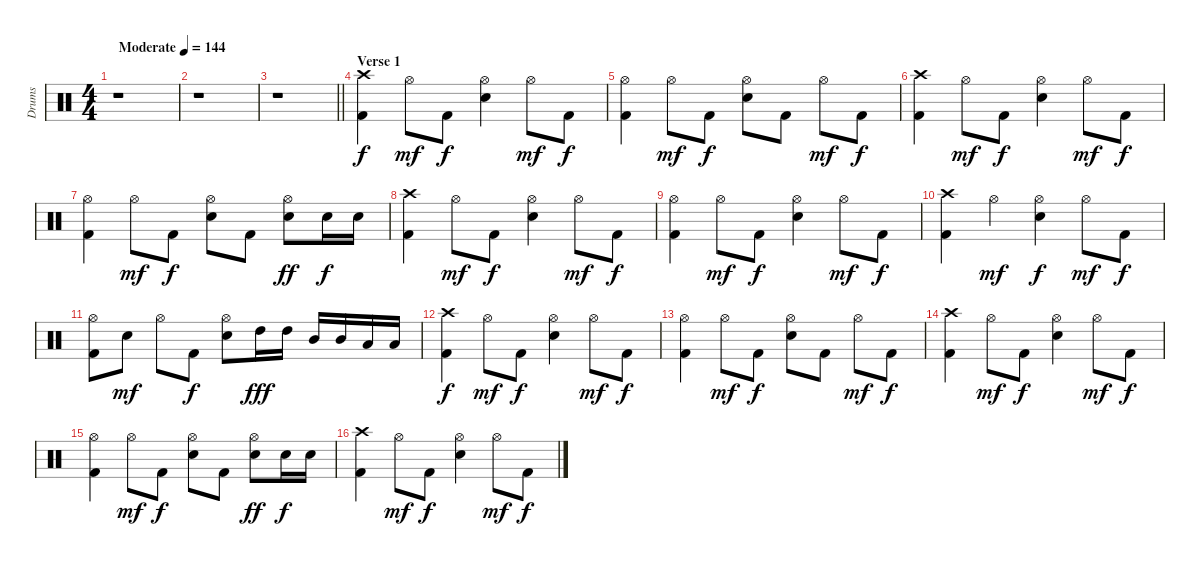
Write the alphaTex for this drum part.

\track ("Drums" "Drums") {instrument percussion}
\staff {score}
\articulation defaults
\ts (4 4)
\tempo (144 "Moderate")
\clef neutral
\ks c
r.1{dy f} |
r.1 |
\barLineRight lightlight
r.1 |
\section ("" "Verse 1")
("Crash high (hit)" "Kick (hit) 2").4 "Hi-Hat (open)".8{dy mf} "Kick (hit) 2".8{dy f} ("Hi-Hat (open)" "Electric Snare (hit)").4 "Hi-Hat (open)".8{dy mf} "Kick (hit) 2".8{dy f} |
("Hi-Hat (open)" "Kick (hit) 2").4 "Hi-Hat (open)".8{dy mf} "Kick (hit) 2".8{dy f} ("Hi-Hat (open)" "Electric Snare (hit)").8 "Kick (hit) 2".8 "Hi-Hat (open)".8{dy mf} "Kick (hit) 2".8{dy f} |
("Crash high (hit)" "Kick (hit) 2").4 "Hi-Hat (open)".8{dy mf} "Kick (hit) 2".8{dy f} ("Hi-Hat (open)" "Electric Snare (hit)").4 "Hi-Hat (open)".8{dy mf} "Kick (hit) 2".8{dy f} |
("Hi-Hat (open)" "Kick (hit) 2").4 "Hi-Hat (open)".8{dy mf} "Kick (hit) 2".8{dy f} ("Hi-Hat (open)" "Electric Snare (hit)").8 "Kick (hit) 2".8 ("Hi-Hat (open)" "Electric Snare (hit)").8{dy ff} "Electric Snare (hit)".16{dy f} "Electric Snare (hit)".16 |
("Crash high (hit)" "Kick (hit) 2").4 "Hi-Hat (open)".8{dy mf} "Kick (hit) 2".8{dy f} ("Hi-Hat (open)" "Electric Snare (hit)").4 "Hi-Hat (open)".8{dy mf} "Kick (hit) 2".8{dy f} |
("Hi-Hat (open)" "Kick (hit) 2").4 "Hi-Hat (open)".8{dy mf} "Kick (hit) 2".8{dy f} ("Hi-Hat (open)" "Electric Snare (hit)").4 "Hi-Hat (open)".8{dy mf} "Kick (hit) 2".8{dy f} |
("Crash high (hit)" "Kick (hit) 2").4 "Hi-Hat (open)".4{dy mf} ("Hi-Hat (open)" "Electric Snare (hit)").4{dy f} "Hi-Hat (open)".8{dy mf} "Kick (hit) 2".8{dy f} |
("Hi-Hat (open)" "Kick (hit) 2").8 "Electric Snare (hit)".8{dy mf} "Hi-Hat (open)".8 "Kick (hit) 2".8{dy f} ("Hi-Hat (open)" "Electric Snare (hit)").8 "High Tom (hit)".16{dy fff} "High Tom (hit)".16 "Mid Tom (hit)".16 "Mid Tom (hit)".16 "Low Tom (hit)".16 "Low Tom (hit)".16 |
("Crash high (hit)" "Kick (hit) 2").4{dy f} "Hi-Hat (open)".8{dy mf} "Kick (hit) 2".8{dy f} ("Hi-Hat (open)" "Electric Snare (hit)").4 "Hi-Hat (open)".8{dy mf} "Kick (hit) 2".8{dy f} |
("Hi-Hat (open)" "Kick (hit) 2").4 "Hi-Hat (open)".8{dy mf} "Kick (hit) 2".8{dy f} ("Hi-Hat (open)" "Electric Snare (hit)").8 "Kick (hit) 2".8 "Hi-Hat (open)".8{dy mf} "Kick (hit) 2".8{dy f} |
("Crash high (hit)" "Kick (hit) 2").4 "Hi-Hat (open)".8{dy mf} "Kick (hit) 2".8{dy f} ("Hi-Hat (open)" "Electric Snare (hit)").4 "Hi-Hat (open)".8{dy mf} "Kick (hit) 2".8{dy f} |
("Hi-Hat (open)" "Kick (hit) 2").4 "Hi-Hat (open)".8{dy mf} "Kick (hit) 2".8{dy f} ("Hi-Hat (open)" "Electric Snare (hit)").8 "Kick (hit) 2".8 ("Hi-Hat (open)" "Electric Snare (hit)").8{dy ff} "Electric Snare (hit)".16{dy f} "Electric Snare (hit)".16 |
("Crash high (hit)" "Kick (hit) 2").4 "Hi-Hat (open)".8{dy mf} "Kick (hit) 2".8{dy f} ("Hi-Hat (open)" "Electric Snare (hit)").4 "Hi-Hat (open)".8{dy mf} "Kick (hit) 2".8{dy f}
